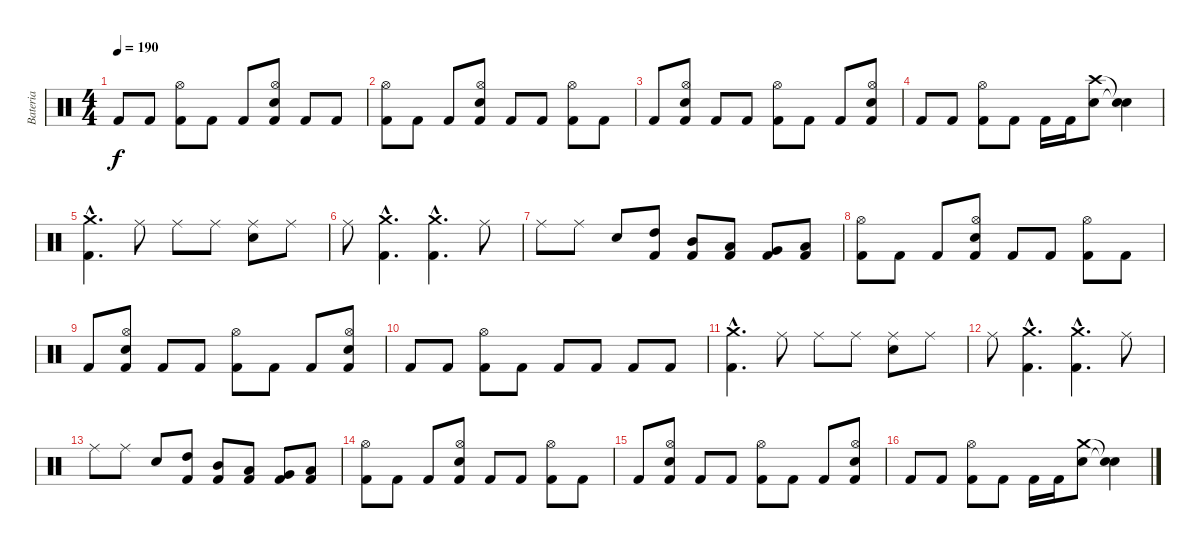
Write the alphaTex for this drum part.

\track ("Bateria" "Bateria") {instrument percussion}
\staff {score}
\articulation defaults
\ts (4 4)
\tempo 190
\clef neutral
\ks c "Kick (hit) 2".8{dy f} "Kick (hit) 2".8
("Hi-Hat (open)" "Kick (hit) 2").8 "Kick (hit) 2".8 "Kick (hit) 2".8 ("Hi-Hat (open)" "Electric Snare (hit)" "Kick (hit) 2").8 "Kick (hit) 2".8 "Kick (hit) 2".8 |
("Hi-Hat (open)" "Kick (hit) 2").8 "Kick (hit) 2".8 "Kick (hit) 2".8 ("Hi-Hat (open)" "Electric Snare (hit)" "Kick (hit) 2").8 "Kick (hit) 2".8 "Kick (hit) 2".8 ("Hi-Hat (open)" "Kick (hit) 2").8 "Kick (hit) 2".8 |
"Kick (hit) 2".8 ("Hi-Hat (open)" "Electric Snare (hit)" "Kick (hit) 2").8 "Kick (hit) 2".8 "Kick (hit) 2".8 ("Hi-Hat (open)" "Kick (hit) 2").8 "Kick (hit) 2".8 "Kick (hit) 2".8 ("Hi-Hat (open)" "Electric Snare (hit)" "Kick (hit) 2").8 |
"Kick (hit) 2".8 "Kick (hit) 2".8 ("Hi-Hat (open)" "Kick (hit) 2").8 "Kick (hit) 2".8 "Kick (hit) 2".16 "Kick (hit) 2".16 ("Crash high (hit)" "Electric Snare (hit)").8 ("Snare (hit)"{t} "Snare (hit)"{t}).4 |
("Crash medium (hit)"{hac} "Kick (hit) 2"{hac}).4{d} "Ride (middle)".8 "Ride (middle)".8 "Ride (middle)".8 ("Ride (middle)" "Electric Snare (hit)").8 "Ride (middle)".8 |
"Ride (middle)".8 ("Crash medium (hit)"{hac} "Kick (hit) 2"{hac}).4{d} ("Crash medium (hit)"{hac} "Kick (hit) 2"{hac}).4{d} "Ride (middle)".8 |
"Ride (middle)".8 "Ride (middle)".8 "Electric Snare (hit)".8 ("High Tom (hit)" "Kick (hit) 2").8 ("Mid Tom (hit)" "Kick (hit) 2").8 ("Low Tom (hit)" "Kick (hit) 2").8 ("Very Low Tom (hit)" "Kick (hit) 2").8 ("Low Floor Tom (hit)" "Kick (hit) 2").8 |
("Hi-Hat (open)" "Kick (hit) 2").8 "Kick (hit) 2".8 "Kick (hit) 2".8 ("Hi-Hat (open)" "Electric Snare (hit)" "Kick (hit) 2").8 "Kick (hit) 2".8 "Kick (hit) 2".8 ("Hi-Hat (open)" "Kick (hit) 2").8 "Kick (hit) 2".8 |
"Kick (hit) 2".8 ("Hi-Hat (open)" "Electric Snare (hit)" "Kick (hit) 2").8 "Kick (hit) 2".8 "Kick (hit) 2".8 ("Hi-Hat (open)" "Kick (hit) 2").8 "Kick (hit) 2".8 "Kick (hit) 2".8 ("Hi-Hat (open)" "Electric Snare (hit)" "Kick (hit) 2").8 |
"Kick (hit) 2".8 "Kick (hit) 2".8 ("Hi-Hat (open)" "Kick (hit) 2").8 "Kick (hit) 2".8 "Kick (hit) 2".8 "Kick (hit) 2".8 "Kick (hit) 2".8 "Kick (hit) 2".8 |
("Crash medium (hit)"{hac} "Kick (hit) 2"{hac}).4{d} "Ride (middle)".8 "Ride (middle)".8 "Ride (middle)".8 ("Ride (middle)" "Electric Snare (hit)").8 "Ride (middle)".8 |
"Ride (middle)".8 ("Crash medium (hit)"{hac} "Kick (hit) 2"{hac}).4{d} ("Crash medium (hit)"{hac} "Kick (hit) 2"{hac}).4{d} "Ride (middle)".8 |
"Ride (middle)".8 "Ride (middle)".8 "Electric Snare (hit)".8 ("High Tom (hit)" "Kick (hit) 2").8 ("Mid Tom (hit)" "Kick (hit) 2").8 ("Low Tom (hit)" "Kick (hit) 2").8 ("Very Low Tom (hit)" "Kick (hit) 2").8 ("Low Floor Tom (hit)" "Kick (hit) 2").8 |
("Hi-Hat (open)" "Kick (hit) 2").8 "Kick (hit) 2".8 "Kick (hit) 2".8 ("Hi-Hat (open)" "Electric Snare (hit)" "Kick (hit) 2").8 "Kick (hit) 2".8 "Kick (hit) 2".8 ("Hi-Hat (open)" "Kick (hit) 2").8 "Kick (hit) 2".8 |
"Kick (hit) 2".8 ("Hi-Hat (open)" "Electric Snare (hit)" "Kick (hit) 2").8 "Kick (hit) 2".8 "Kick (hit) 2".8 ("Hi-Hat (open)" "Kick (hit) 2").8 "Kick (hit) 2".8 "Kick (hit) 2".8 ("Hi-Hat (open)" "Electric Snare (hit)" "Kick (hit) 2").8 |
"Kick (hit) 2".8 "Kick (hit) 2".8 ("Hi-Hat (open)" "Kick (hit) 2").8 "Kick (hit) 2".8 "Kick (hit) 2".16 "Kick (hit) 2".16 ("Crash medium (hit)" "Electric Snare (hit)").8 ("Snare (hit)"{t} "Snare (hit)"{t}).4
